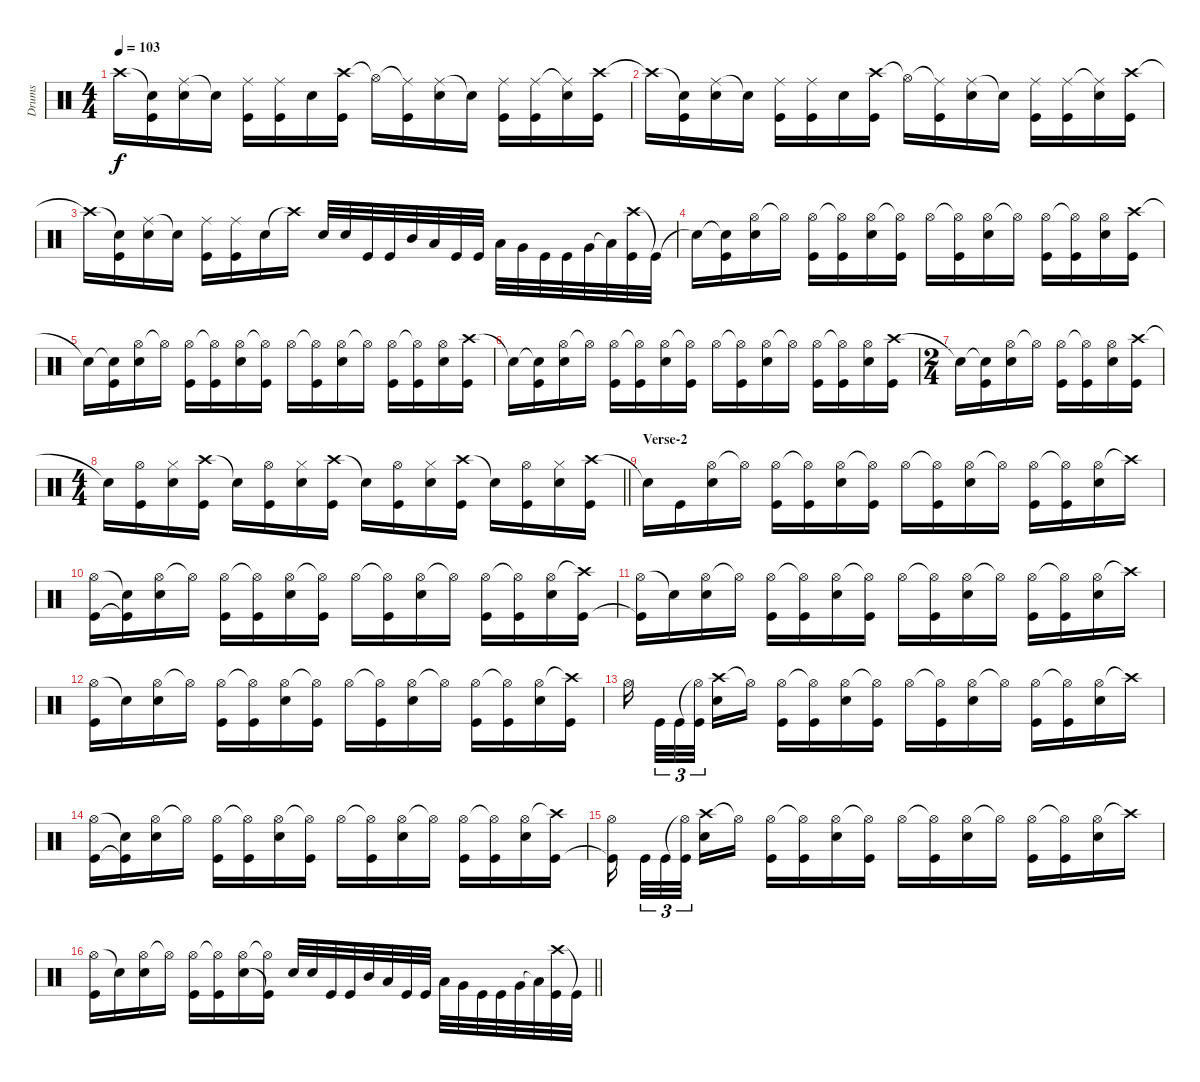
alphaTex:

\track ("Drums" "Drums") {instrument percussion}
\staff {score}
\articulation defaults
\ts (4 4)
\tempo 103
\clef neutral
\ks c "Crash high (hit)"{t}.16{dy f}
("Snare (hit)"{t} "Kick (hit)").16 ("Ride (middle)" "Electric Snare (hit)").16 "Snare (hit)"{t}.16 ("Ride (middle)" "Kick (hit)").16 ("Ride (middle)" "Kick (hit)").16 "Electric Snare (hit)".16 ("Crash high (hit)" "Kick (hit)").16 "Hi-Hat (open)"{t}.16 ("Ride (middle)"{t} "Kick (hit)").16 ("Ride (middle)" "Electric Snare (hit)").16 "Snare (hit)"{t}.16 ("Ride (middle)" "Kick (hit)").16 ("Ride (middle)" "Kick (hit)").16 ("Ride (middle)"{t} "Electric Snare (hit)").16 ("Crash high (hit)" "Kick (hit)").16 |
"Crash high (hit)"{t}.16 ("Snare (hit)"{t} "Kick (hit)").16 ("Ride (middle)" "Electric Snare (hit)").16 "Snare (hit)"{t}.16 ("Ride (middle)" "Kick (hit)").16 ("Ride (middle)" "Kick (hit)").16 "Electric Snare (hit)".16 ("Crash high (hit)" "Kick (hit)").16 "Hi-Hat (open)"{t}.16 ("Ride (middle)"{t} "Kick (hit)").16 ("Ride (middle)" "Electric Snare (hit)").16 "Snare (hit)"{t}.16 ("Ride (middle)" "Kick (hit)").16 ("Ride (middle)" "Kick (hit)").16 ("Ride (middle)"{t} "Electric Snare (hit)").16 ("Crash high (hit)" "Kick (hit)").16 |
"Crash high (hit)"{t}.16 ("Snare (hit)"{t} "Kick (hit)").16 ("Ride (middle)" "Electric Snare (hit)").16 "Snare (hit)"{t}.16 ("Ride (middle)" "Kick (hit)").16 ("Ride (middle)" "Kick (hit)").16 "Electric Snare (hit)".16 "Crash high (hit)"{t}.16 "Electric Snare (hit)".32 "Electric Snare (hit)".32 "Kick (hit)".32 "Kick (hit)".32 "Mid Tom (hit)".32 "Low Tom (hit)".32 "Kick (hit)".32 "Kick (hit)".32 "Low Tom (hit)".32 "Very Low Tom (hit)".32 "Kick (hit)".32 "Kick (hit)".32 "Very Low Tom (hit)".32 "Low Floor Tom (hit)"{t}.32 ("Crash high (hit)" "Kick (hit)").32 "Kick (hit)"{t}.32 |
"Snare (hit)"{t}.16 ("Snare (hit)"{t} "Kick (hit)").16 ("Hi-Hat (open)" "Electric Snare (hit)").16 "Hi-Hat (open)"{t}.16 ("Hi-Hat (open)" "Kick (hit)").16 ("Hi-Hat (open)"{t} "Kick (hit)").16 ("Hi-Hat (open)" "Electric Snare (hit)").16 ("Hi-Hat (open)"{t} "Kick (hit)").16 "Hi-Hat (open)".16 ("Hi-Hat (open)"{t} "Kick (hit)").16 ("Hi-Hat (open)" "Electric Snare (hit)").16 "Hi-Hat (open)"{t}.16 ("Hi-Hat (open)" "Kick (hit)").16 ("Hi-Hat (open)"{t} "Kick (hit)").16 ("Hi-Hat (open)" "Electric Snare (hit)").16 ("Crash high (hit)" "Kick (hit)").16 |
"Snare (hit)"{t}.16 ("Snare (hit)"{t} "Kick (hit)").16 ("Hi-Hat (open)" "Electric Snare (hit)").16 "Hi-Hat (open)"{t}.16 ("Hi-Hat (open)" "Kick (hit)").16 ("Hi-Hat (open)"{t} "Kick (hit)").16 ("Hi-Hat (open)" "Electric Snare (hit)").16 ("Hi-Hat (open)"{t} "Kick (hit)").16 "Hi-Hat (open)".16 ("Hi-Hat (open)"{t} "Kick (hit)").16 ("Hi-Hat (open)" "Electric Snare (hit)").16 "Hi-Hat (open)"{t}.16 ("Hi-Hat (open)" "Kick (hit)").16 ("Hi-Hat (open)"{t} "Kick (hit)").16 ("Hi-Hat (open)" "Electric Snare (hit)").16 ("Crash high (hit)" "Kick (hit)").16 |
"Snare (hit)"{t}.16 ("Snare (hit)"{t} "Kick (hit)").16 ("Hi-Hat (open)" "Electric Snare (hit)").16 "Hi-Hat (open)"{t}.16 ("Hi-Hat (open)" "Kick (hit)").16 ("Hi-Hat (open)"{t} "Kick (hit)").16 ("Hi-Hat (open)" "Electric Snare (hit)").16 ("Hi-Hat (open)"{t} "Kick (hit)").16 "Hi-Hat (open)".16 ("Hi-Hat (open)"{t} "Kick (hit)").16 ("Hi-Hat (open)" "Electric Snare (hit)").16 "Hi-Hat (open)"{t}.16 ("Hi-Hat (open)" "Kick (hit)").16 ("Hi-Hat (open)"{t} "Kick (hit)").16 ("Hi-Hat (open)" "Electric Snare (hit)").16 ("Crash high (hit)" "Kick (hit)").16 |
\ts (2 4)
"Snare (hit)"{t}.16 ("Snare (hit)"{t} "Kick (hit)").16 ("Hi-Hat (open)" "Electric Snare (hit)").16 "Hi-Hat (open)"{t}.16 ("Hi-Hat (open)" "Kick (hit)").16 ("Hi-Hat (open)"{t} "Kick (hit)").16 ("Hi-Hat (open)" "Electric Snare (hit)").16 ("Crash high (hit)" "Kick (hit)").16 |
\ts (4 4)
\barLineRight lightlight "Snare (hit)"{t}.16
("Hi-Hat (open)" "Kick (hit)").16 ("Hi-Hat (closed)" "Electric Snare (hit)").16 ("Crash high (hit)" "Kick (hit)").16 "Snare (hit)"{t}.16 ("Hi-Hat (open)" "Kick (hit)").16 ("Hi-Hat (closed)" "Electric Snare (hit)").16 ("Crash high (hit)" "Kick (hit)").16 "Snare (hit)"{t}.16 ("Hi-Hat (open)" "Kick (hit)").16 ("Hi-Hat (closed)" "Electric Snare (hit)").16 ("Crash high (hit)" "Kick (hit)").16 "Snare (hit)"{t}.16 ("Hi-Hat (open)" "Kick (hit)").16 ("Hi-Hat (closed)" "Electric Snare (hit)").16 ("Crash high (hit)" "Kick (hit)").16 |
\section ("" "Verse-2")
"Snare (hit)"{t}.16 "Kick (hit)".16 ("Hi-Hat (open)" "Electric Snare (hit)").16 "Hi-Hat (open)"{t}.16 ("Hi-Hat (open)" "Kick (hit)").16 ("Hi-Hat (open)"{t} "Kick (hit)").16 ("Hi-Hat (open)" "Electric Snare (hit)").16 ("Hi-Hat (open)"{t} "Kick (hit)").16 "Hi-Hat (open)".16 ("Hi-Hat (open)"{t} "Kick (hit)").16 ("Hi-Hat (open)" "Electric Snare (hit)").16 "Hi-Hat (open)"{t}.16 ("Hi-Hat (open)" "Kick (hit)").16 ("Hi-Hat (open)"{t} "Kick (hit)").16 ("Hi-Hat (open)" "Electric Snare (hit)").16 "Crash high (hit)"{t}.16 |
("Hi-Hat (open)" "Kick (hit)").16 ("Snare (hit)"{t} "Kick (hit)"{t}).16 ("Hi-Hat (open)" "Electric Snare (hit)").16 "Hi-Hat (open)"{t}.16 ("Hi-Hat (open)" "Kick (hit)").16 ("Hi-Hat (open)"{t} "Kick (hit)").16 ("Hi-Hat (open)" "Electric Snare (hit)").16 ("Hi-Hat (open)"{t} "Kick (hit)").16 "Hi-Hat (open)".16 ("Hi-Hat (open)"{t} "Kick (hit)").16 ("Hi-Hat (open)" "Electric Snare (hit)").16 "Hi-Hat (open)"{t}.16 ("Hi-Hat (open)" "Kick (hit)").16 ("Hi-Hat (open)"{t} "Kick (hit)").16 ("Hi-Hat (open)" "Electric Snare (hit)").16 ("Crash high (hit)"{t} "Kick (hit)").16 |
("Hi-Hat (open)" "Kick (hit)"{t}).16 "Snare (hit)"{t}.16 ("Hi-Hat (open)" "Electric Snare (hit)").16 "Hi-Hat (open)"{t}.16 ("Hi-Hat (open)" "Kick (hit)").16 ("Hi-Hat (open)"{t} "Kick (hit)").16 ("Hi-Hat (open)" "Electric Snare (hit)").16 ("Hi-Hat (open)"{t} "Kick (hit)").16 "Hi-Hat (open)".16 ("Hi-Hat (open)"{t} "Kick (hit)").16 ("Hi-Hat (open)" "Electric Snare (hit)").16 "Hi-Hat (open)"{t}.16 ("Hi-Hat (open)" "Kick (hit)").16 ("Hi-Hat (open)"{t} "Kick (hit)").16 ("Hi-Hat (open)" "Electric Snare (hit)").16 "Crash high (hit)"{t}.16 |
("Hi-Hat (open)" "Kick (hit)").16 "Snare (hit)"{t}.16 ("Hi-Hat (open)" "Electric Snare (hit)").16 "Hi-Hat (open)"{t}.16 ("Hi-Hat (open)" "Kick (hit)").16 ("Hi-Hat (open)"{t} "Kick (hit)").16 ("Hi-Hat (open)" "Electric Snare (hit)").16 ("Hi-Hat (open)"{t} "Kick (hit)").16 "Hi-Hat (open)".16 ("Hi-Hat (open)"{t} "Kick (hit)").16 ("Hi-Hat (open)" "Electric Snare (hit)").16 "Hi-Hat (open)"{t}.16 ("Hi-Hat (open)" "Kick (hit)").16 ("Hi-Hat (open)"{t} "Kick (hit)").16 ("Hi-Hat (open)" "Electric Snare (hit)").16 ("Crash high (hit)"{t} "Kick (hit)").16 |
"Hi-Hat (open)".16 "Kick (hit)".32{tu (3 2)} "Kick (hit)".32{tu (3 2)} ("Hi-Hat (open)"{t} "Kick (hit)").32{tu (3 2)} ("Crash high (hit)" "Electric Snare (hit)").16 "Hi-Hat (open)"{t}.16 ("Hi-Hat (open)" "Kick (hit)").16 ("Hi-Hat (open)"{t} "Kick (hit)").16 ("Hi-Hat (open)" "Electric Snare (hit)").16 ("Hi-Hat (open)"{t} "Kick (hit)").16 "Hi-Hat (open)".16 ("Hi-Hat (open)"{t} "Kick (hit)").16 ("Hi-Hat (open)" "Electric Snare (hit)").16 "Hi-Hat (open)"{t}.16 ("Hi-Hat (open)" "Kick (hit)").16 ("Hi-Hat (open)"{t} "Kick (hit)").16 ("Hi-Hat (open)" "Electric Snare (hit)").16 "Crash high (hit)"{t}.16 |
("Hi-Hat (open)" "Kick (hit)").16 ("Snare (hit)"{t} "Kick (hit)"{t}).16 ("Hi-Hat (open)" "Electric Snare (hit)").16 "Hi-Hat (open)"{t}.16 ("Hi-Hat (open)" "Kick (hit)").16 ("Hi-Hat (open)"{t} "Kick (hit)").16 ("Hi-Hat (open)" "Electric Snare (hit)").16 ("Hi-Hat (open)"{t} "Kick (hit)").16 "Hi-Hat (open)".16 ("Hi-Hat (open)"{t} "Kick (hit)").16 ("Hi-Hat (open)" "Electric Snare (hit)").16 "Hi-Hat (open)"{t}.16 ("Hi-Hat (open)" "Kick (hit)").16 ("Hi-Hat (open)"{t} "Kick (hit)").16 ("Hi-Hat (open)" "Electric Snare (hit)").16 ("Crash high (hit)"{t} "Kick (hit)").16 |
("Hi-Hat (open)" "Kick (hit)"{t}).16 "Kick (hit)".32{tu (3 2)} "Kick (hit)".32{tu (3 2)} ("Hi-Hat (open)"{t} "Kick (hit)").32{tu (3 2)} ("Crash high (hit)" "Electric Snare (hit)").16 "Hi-Hat (open)"{t}.16 ("Hi-Hat (open)" "Kick (hit)").16 ("Hi-Hat (open)"{t} "Kick (hit)").16 ("Hi-Hat (open)" "Electric Snare (hit)").16 ("Hi-Hat (open)"{t} "Kick (hit)").16 "Hi-Hat (open)".16 ("Hi-Hat (open)"{t} "Kick (hit)").16 ("Hi-Hat (open)" "Electric Snare (hit)").16 "Hi-Hat (open)"{t}.16 ("Hi-Hat (open)" "Kick (hit)").16 ("Hi-Hat (open)"{t} "Kick (hit)").16 ("Hi-Hat (open)" "Electric Snare (hit)").16 "Crash high (hit)"{t}.16 |
\barLineRight lightlight
("Hi-Hat (open)" "Kick (hit)").16 "Snare (hit)"{t}.16 ("Hi-Hat (open)" "Electric Snare (hit)").16 "Hi-Hat (open)"{t}.16 ("Hi-Hat (open)" "Kick (hit)").16 ("Hi-Hat (open)"{t} "Kick (hit)").16 ("Hi-Hat (open)" "Electric Snare (hit)").16 ("Hi-Hat (open)"{t} "Kick (hit)"{t}).16 "Electric Snare (hit)".32 "Electric Snare (hit)".32 "Kick (hit)".32 "Kick (hit)".32 "Mid Tom (hit)".32 "Low Tom (hit)".32 "Kick (hit)".32 "Kick (hit)".32 "Low Tom (hit)".32 "Very Low Tom (hit)".32 "Kick (hit)".32 "Kick (hit)".32 "Very Low Tom (hit)".32 "Low Floor Tom (hit)"{t}.32 ("Crash high (hit)" "Kick (hit)").32 "Kick (hit)"{t}.32
